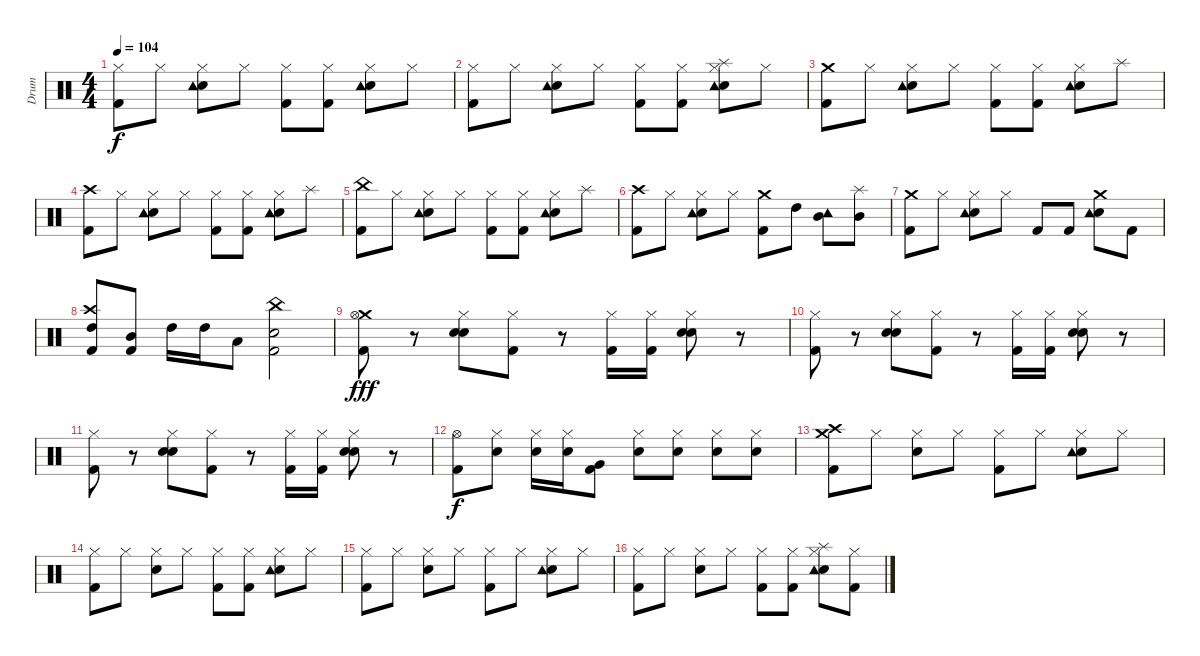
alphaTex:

\track ("Drum" "Drum") {instrument percussion}
\staff {score}
\articulation defaults
\ts (4 4)
\tempo 104
\clef neutral
\ks c
("Hi-Hat (closed)" "Kick (hit) 2").8{dy f} "Hi-Hat (closed)".8 ("Snare (hit) 2" "Hi-Hat (closed)" "Tambourine (hit)").8 "Hi-Hat (closed)".8 ("Hi-Hat (closed)" "Kick (hit) 2").8 ("Hi-Hat (closed)" "Kick (hit) 2").8 ("Snare (hit) 2" "Hi-Hat (closed)" "Tambourine (hit)").8 "Hi-Hat (closed)".8 |
("Hi-Hat (closed)" "Kick (hit) 2").8 "Hi-Hat (closed)".8 ("Snare (hit) 2" "Hi-Hat (closed)" "Tambourine (hit)").8 "Hi-Hat (closed)".8 ("Hi-Hat (closed)" "Kick (hit) 2").8 ("Hi-Hat (closed)" "Kick (hit) 2").8 ("Snare (hit) 2" "Hi-Hat (closed)" "Tambourine (hit)" "Splash (hit)").8 "Hi-Hat (closed)".8 |
("Crash medium (hit)" "Kick (hit) 2").8 "Hi-Hat (closed)".8 ("Snare (hit) 2" "Hi-Hat (closed)" "Tambourine (hit)").8 "Hi-Hat (closed)".8 ("Hi-Hat (closed)" "Kick (hit) 2").8 ("Hi-Hat (closed)" "Kick (hit) 2").8 ("Snare (hit) 2" "Hi-Hat (closed)" "Tambourine (hit)").8 "Splash (hit)".8 |
("Crash high (hit)" "Kick (hit) 2").8 "Hi-Hat (closed)".8 ("Snare (hit) 2" "Hi-Hat (closed)" "Tambourine (hit)").8 "Hi-Hat (closed)".8 ("Hi-Hat (closed)" "Kick (hit) 2").8 ("Hi-Hat (closed)" "Kick (hit) 2").8 ("Snare (hit) 2" "Hi-Hat (closed)" "Tambourine (hit)").8 "Splash (hit)".8 |
("China (hit)" "Kick (hit) 2").8 "Hi-Hat (closed)".8 ("Snare (hit) 2" "Hi-Hat (closed)" "Tambourine (hit)").8 "Hi-Hat (closed)".8 ("Hi-Hat (closed)" "Kick (hit) 2").8 ("Hi-Hat (closed)" "Kick (hit) 2").8 ("Snare (hit) 2" "Hi-Hat (closed)" "Tambourine (hit)").8 "Splash (hit)".8 |
("Crash high (hit)" "Kick (hit) 2").8 "Hi-Hat (closed)".8 ("Snare (hit) 2" "Hi-Hat (closed)" "Tambourine (hit)").8 "Hi-Hat (closed)".8 ("Crash medium (hit)" "Kick (hit) 2").8 "High Tom (hit)".8 ("Mid Tom (hit)" "Tambourine (hit)").8 ("Mid Tom (hit)" "Splash (hit)").8 |
("Crash medium (hit)" "Kick (hit) 2").8 "Hi-Hat (closed)".8 ("Snare (hit) 2" "Hi-Hat (closed)" "Tambourine (hit)").8 "Hi-Hat (closed)".8 "Kick (hit) 2".8 "Kick (hit) 2".8 ("Snare (hit) 2" "Crash medium (hit)" "Tambourine (hit)").8 "Kick (hit) 2".8 |
("High Tom (hit)" "Crash high (hit)" "Kick (hit) 2").8 ("Mid Tom (hit)" "Kick (hit) 2").8 "High Tom (hit)".16 "High Tom (hit)".16 "Low Tom (hit)".8 ("Snare (hit) 2" "China (hit)" "Kick (hit) 2").2 |
("Crash medium (hit)" "Hi-Hat (open)" "Kick (hit) 2").8{dy fff} r.8 ("Snare (hit) 2" "Electric Snare (hit)" "Hi-Hat (closed)").8 ("Hi-Hat (closed)" "Kick (hit) 2").8 r.8 ("Hi-Hat (closed)" "Kick (hit) 2").16 ("Hi-Hat (closed)" "Kick (hit) 2").16 ("Snare (hit) 2" "Electric Snare (hit)" "Hi-Hat (closed)").8 r.8 |
("Hi-Hat (closed)" "Kick (hit) 2").8 r.8 ("Snare (hit) 2" "Electric Snare (hit)" "Hi-Hat (closed)").8 ("Hi-Hat (closed)" "Kick (hit) 2").8 r.8 ("Hi-Hat (closed)" "Kick (hit) 2").16 ("Hi-Hat (closed)" "Kick (hit) 2").16 ("Snare (hit) 2" "Electric Snare (hit)" "Hi-Hat (closed)").8 r.8 |
("Hi-Hat (closed)" "Kick (hit) 2").8 r.8 ("Snare (hit) 2" "Electric Snare (hit)" "Hi-Hat (closed)").8 ("Hi-Hat (closed)" "Kick (hit) 2").8 r.8 ("Hi-Hat (closed)" "Kick (hit) 2").16 ("Hi-Hat (closed)" "Kick (hit) 2").16 ("Snare (hit) 2" "Electric Snare (hit)" "Hi-Hat (closed)").8 r.8 |
("Hi-Hat (open)" "Kick (hit) 2").8{dy f} ("Snare (hit) 2" "Hi-Hat (closed)").8 ("Snare (hit) 2" "Hi-Hat (closed)").16 ("Snare (hit) 2" "Hi-Hat (closed)").16 ("Very Low Tom (hit)" "Kick (hit) 2").8 ("Snare (hit) 2" "Hi-Hat (closed)").8 ("Snare (hit) 2" "Hi-Hat (closed)").8 ("Snare (hit) 2" "Hi-Hat (closed)").8 ("Snare (hit) 2" "Hi-Hat (closed)").8 |
("Crash medium (hit)" "Crash high (hit)" "Kick (hit) 2").8 "Hi-Hat (closed)".8 ("Snare (hit) 2" "Hi-Hat (closed)").8 "Hi-Hat (closed)".8 ("Hi-Hat (closed)" "Kick (hit) 2").8 "Hi-Hat (closed)".8 ("Snare (hit) 2" "Hi-Hat (closed)" "Tambourine (hit)").8 "Hi-Hat (closed)".8 |
("Hi-Hat (closed)" "Kick (hit) 2").8 "Hi-Hat (closed)".8 ("Snare (hit) 2" "Hi-Hat (closed)").8 "Hi-Hat (closed)".8 ("Hi-Hat (closed)" "Kick (hit) 2").8 ("Hi-Hat (closed)" "Kick (hit) 2").8 ("Snare (hit) 2" "Hi-Hat (closed)" "Tambourine (hit)").8 "Hi-Hat (closed)".8 |
("Hi-Hat (closed)" "Kick (hit) 2").8 "Hi-Hat (closed)".8 ("Snare (hit) 2" "Hi-Hat (closed)").8 "Hi-Hat (closed)".8 ("Hi-Hat (closed)" "Kick (hit) 2").8 "Hi-Hat (closed)".8 ("Snare (hit) 2" "Hi-Hat (closed)" "Tambourine (hit)").8 "Hi-Hat (closed)".8 |
("Hi-Hat (closed)" "Kick (hit) 2").8 "Hi-Hat (closed)".8 ("Snare (hit) 2" "Hi-Hat (closed)").8 "Hi-Hat (closed)".8 ("Hi-Hat (closed)" "Kick (hit) 2").8 ("Hi-Hat (closed)" "Kick (hit) 2").8 ("Snare (hit) 2" "Hi-Hat (closed)" "Tambourine (hit)" "Splash (hit)").8 ("Hi-Hat (closed)" "Kick (hit) 2").8
